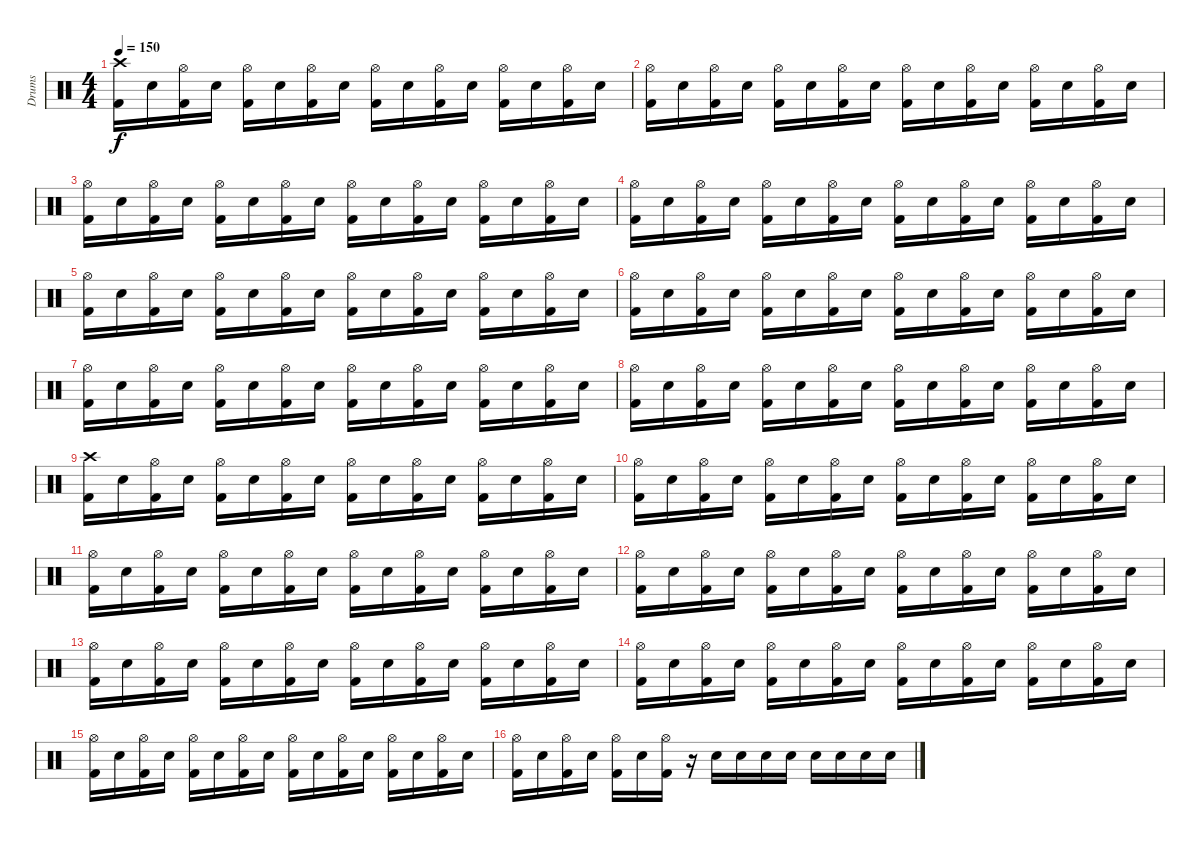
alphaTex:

\track ("Drums" "Drums") {instrument percussion}
\staff {score}
\articulation defaults
\ts (4 4)
\tempo 150
\clef neutral
\ks c
("Kick (hit) 2" "Crash high (hit)").16{dy f} "Electric Snare (hit)".16 ("Kick (hit) 2" "Hi-Hat (open)").16 "Electric Snare (hit)".16 ("Kick (hit) 2" "Hi-Hat (open)").16 "Electric Snare (hit)".16 ("Kick (hit) 2" "Hi-Hat (open)").16 "Electric Snare (hit)".16 ("Kick (hit) 2" "Hi-Hat (open)").16 "Electric Snare (hit)".16 ("Kick (hit) 2" "Hi-Hat (open)").16 "Electric Snare (hit)".16 ("Kick (hit) 2" "Hi-Hat (open)").16 "Electric Snare (hit)".16 ("Kick (hit) 2" "Hi-Hat (open)").16 "Electric Snare (hit)".16 |
("Kick (hit) 2" "Hi-Hat (open)").16 "Electric Snare (hit)".16 ("Kick (hit) 2" "Hi-Hat (open)").16 "Electric Snare (hit)".16 ("Kick (hit) 2" "Hi-Hat (open)").16 "Electric Snare (hit)".16 ("Kick (hit) 2" "Hi-Hat (open)").16 "Electric Snare (hit)".16 ("Kick (hit) 2" "Hi-Hat (open)").16 "Electric Snare (hit)".16 ("Kick (hit) 2" "Hi-Hat (open)").16 "Electric Snare (hit)".16 ("Kick (hit) 2" "Hi-Hat (open)").16 "Electric Snare (hit)".16 ("Kick (hit) 2" "Hi-Hat (open)").16 "Electric Snare (hit)".16 |
("Kick (hit) 2" "Hi-Hat (open)").16 "Electric Snare (hit)".16 ("Kick (hit) 2" "Hi-Hat (open)").16 "Electric Snare (hit)".16 ("Kick (hit) 2" "Hi-Hat (open)").16 "Electric Snare (hit)".16 ("Kick (hit) 2" "Hi-Hat (open)").16 "Electric Snare (hit)".16 ("Kick (hit) 2" "Hi-Hat (open)").16 "Electric Snare (hit)".16 ("Kick (hit) 2" "Hi-Hat (open)").16 "Electric Snare (hit)".16 ("Kick (hit) 2" "Hi-Hat (open)").16 "Electric Snare (hit)".16 ("Kick (hit) 2" "Hi-Hat (open)").16 "Electric Snare (hit)".16 |
("Kick (hit) 2" "Hi-Hat (open)").16 "Electric Snare (hit)".16 ("Kick (hit) 2" "Hi-Hat (open)").16 "Electric Snare (hit)".16 ("Kick (hit) 2" "Hi-Hat (open)").16 "Electric Snare (hit)".16 ("Kick (hit) 2" "Hi-Hat (open)").16 "Electric Snare (hit)".16 ("Kick (hit) 2" "Hi-Hat (open)").16 "Electric Snare (hit)".16 ("Kick (hit) 2" "Hi-Hat (open)").16 "Electric Snare (hit)".16 ("Kick (hit) 2" "Hi-Hat (open)").16 "Electric Snare (hit)".16 ("Kick (hit) 2" "Hi-Hat (open)").16 "Electric Snare (hit)".16 |
("Kick (hit) 2" "Hi-Hat (open)").16 "Electric Snare (hit)".16 ("Kick (hit) 2" "Hi-Hat (open)").16 "Electric Snare (hit)".16 ("Kick (hit) 2" "Hi-Hat (open)").16 "Electric Snare (hit)".16 ("Kick (hit) 2" "Hi-Hat (open)").16 "Electric Snare (hit)".16 ("Kick (hit) 2" "Hi-Hat (open)").16 "Electric Snare (hit)".16 ("Kick (hit) 2" "Hi-Hat (open)").16 "Electric Snare (hit)".16 ("Kick (hit) 2" "Hi-Hat (open)").16 "Electric Snare (hit)".16 ("Kick (hit) 2" "Hi-Hat (open)").16 "Electric Snare (hit)".16 |
("Kick (hit) 2" "Hi-Hat (open)").16 "Electric Snare (hit)".16 ("Kick (hit) 2" "Hi-Hat (open)").16 "Electric Snare (hit)".16 ("Kick (hit) 2" "Hi-Hat (open)").16 "Electric Snare (hit)".16 ("Kick (hit) 2" "Hi-Hat (open)").16 "Electric Snare (hit)".16 ("Kick (hit) 2" "Hi-Hat (open)").16 "Electric Snare (hit)".16 ("Kick (hit) 2" "Hi-Hat (open)").16 "Electric Snare (hit)".16 ("Kick (hit) 2" "Hi-Hat (open)").16 "Electric Snare (hit)".16 ("Kick (hit) 2" "Hi-Hat (open)").16 "Electric Snare (hit)".16 |
("Kick (hit) 2" "Hi-Hat (open)").16 "Electric Snare (hit)".16 ("Kick (hit) 2" "Hi-Hat (open)").16 "Electric Snare (hit)".16 ("Kick (hit) 2" "Hi-Hat (open)").16 "Electric Snare (hit)".16 ("Kick (hit) 2" "Hi-Hat (open)").16 "Electric Snare (hit)".16 ("Kick (hit) 2" "Hi-Hat (open)").16 "Electric Snare (hit)".16 ("Kick (hit) 2" "Hi-Hat (open)").16 "Electric Snare (hit)".16 ("Kick (hit) 2" "Hi-Hat (open)").16 "Electric Snare (hit)".16 ("Kick (hit) 2" "Hi-Hat (open)").16 "Electric Snare (hit)".16 |
("Kick (hit) 2" "Hi-Hat (open)").16 "Electric Snare (hit)".16 ("Kick (hit) 2" "Hi-Hat (open)").16 "Electric Snare (hit)".16 ("Kick (hit) 2" "Hi-Hat (open)").16 "Electric Snare (hit)".16 ("Kick (hit) 2" "Hi-Hat (open)").16 "Electric Snare (hit)".16 ("Kick (hit) 2" "Hi-Hat (open)").16 "Electric Snare (hit)".16 ("Kick (hit) 2" "Hi-Hat (open)").16 "Electric Snare (hit)".16 ("Kick (hit) 2" "Hi-Hat (open)").16 "Electric Snare (hit)".16 ("Kick (hit) 2" "Hi-Hat (open)").16 "Electric Snare (hit)".16 |
("Kick (hit) 2" "Crash high (hit)").16 "Electric Snare (hit)".16 ("Kick (hit) 2" "Hi-Hat (open)").16 "Electric Snare (hit)".16 ("Kick (hit) 2" "Hi-Hat (open)").16 "Electric Snare (hit)".16 ("Kick (hit) 2" "Hi-Hat (open)").16 "Electric Snare (hit)".16 ("Kick (hit) 2" "Hi-Hat (open)").16 "Electric Snare (hit)".16 ("Kick (hit) 2" "Hi-Hat (open)").16 "Electric Snare (hit)".16 ("Kick (hit) 2" "Hi-Hat (open)").16 "Electric Snare (hit)".16 ("Kick (hit) 2" "Hi-Hat (open)").16 "Electric Snare (hit)".16 |
("Kick (hit) 2" "Hi-Hat (open)").16 "Electric Snare (hit)".16 ("Kick (hit) 2" "Hi-Hat (open)").16 "Electric Snare (hit)".16 ("Kick (hit) 2" "Hi-Hat (open)").16 "Electric Snare (hit)".16 ("Kick (hit) 2" "Hi-Hat (open)").16 "Electric Snare (hit)".16 ("Kick (hit) 2" "Hi-Hat (open)").16 "Electric Snare (hit)".16 ("Kick (hit) 2" "Hi-Hat (open)").16 "Electric Snare (hit)".16 ("Kick (hit) 2" "Hi-Hat (open)").16 "Electric Snare (hit)".16 ("Kick (hit) 2" "Hi-Hat (open)").16 "Electric Snare (hit)".16 |
("Kick (hit) 2" "Hi-Hat (open)").16 "Electric Snare (hit)".16 ("Kick (hit) 2" "Hi-Hat (open)").16 "Electric Snare (hit)".16 ("Kick (hit) 2" "Hi-Hat (open)").16 "Electric Snare (hit)".16 ("Kick (hit) 2" "Hi-Hat (open)").16 "Electric Snare (hit)".16 ("Kick (hit) 2" "Hi-Hat (open)").16 "Electric Snare (hit)".16 ("Kick (hit) 2" "Hi-Hat (open)").16 "Electric Snare (hit)".16 ("Kick (hit) 2" "Hi-Hat (open)").16 "Electric Snare (hit)".16 ("Kick (hit) 2" "Hi-Hat (open)").16 "Electric Snare (hit)".16 |
("Kick (hit) 2" "Hi-Hat (open)").16 "Electric Snare (hit)".16 ("Kick (hit) 2" "Hi-Hat (open)").16 "Electric Snare (hit)".16 ("Kick (hit) 2" "Hi-Hat (open)").16 "Electric Snare (hit)".16 ("Kick (hit) 2" "Hi-Hat (open)").16 "Electric Snare (hit)".16 ("Kick (hit) 2" "Hi-Hat (open)").16 "Electric Snare (hit)".16 ("Kick (hit) 2" "Hi-Hat (open)").16 "Electric Snare (hit)".16 ("Kick (hit) 2" "Hi-Hat (open)").16 "Electric Snare (hit)".16 ("Kick (hit) 2" "Hi-Hat (open)").16 "Electric Snare (hit)".16 |
("Kick (hit) 2" "Hi-Hat (open)").16 "Electric Snare (hit)".16 ("Kick (hit) 2" "Hi-Hat (open)").16 "Electric Snare (hit)".16 ("Kick (hit) 2" "Hi-Hat (open)").16 "Electric Snare (hit)".16 ("Kick (hit) 2" "Hi-Hat (open)").16 "Electric Snare (hit)".16 ("Kick (hit) 2" "Hi-Hat (open)").16 "Electric Snare (hit)".16 ("Kick (hit) 2" "Hi-Hat (open)").16 "Electric Snare (hit)".16 ("Kick (hit) 2" "Hi-Hat (open)").16 "Electric Snare (hit)".16 ("Kick (hit) 2" "Hi-Hat (open)").16 "Electric Snare (hit)".16 |
("Kick (hit) 2" "Hi-Hat (open)").16 "Electric Snare (hit)".16 ("Kick (hit) 2" "Hi-Hat (open)").16 "Electric Snare (hit)".16 ("Kick (hit) 2" "Hi-Hat (open)").16 "Electric Snare (hit)".16 ("Kick (hit) 2" "Hi-Hat (open)").16 "Electric Snare (hit)".16 ("Kick (hit) 2" "Hi-Hat (open)").16 "Electric Snare (hit)".16 ("Kick (hit) 2" "Hi-Hat (open)").16 "Electric Snare (hit)".16 ("Kick (hit) 2" "Hi-Hat (open)").16 "Electric Snare (hit)".16 ("Kick (hit) 2" "Hi-Hat (open)").16 "Electric Snare (hit)".16 |
("Kick (hit) 2" "Hi-Hat (open)").16 "Electric Snare (hit)".16 ("Kick (hit) 2" "Hi-Hat (open)").16 "Electric Snare (hit)".16 ("Kick (hit) 2" "Hi-Hat (open)").16 "Electric Snare (hit)".16 ("Kick (hit) 2" "Hi-Hat (open)").16 "Electric Snare (hit)".16 ("Kick (hit) 2" "Hi-Hat (open)").16 "Electric Snare (hit)".16 ("Kick (hit) 2" "Hi-Hat (open)").16 "Electric Snare (hit)".16 ("Kick (hit) 2" "Hi-Hat (open)").16 "Electric Snare (hit)".16 ("Kick (hit) 2" "Hi-Hat (open)").16 "Electric Snare (hit)".16 |
("Kick (hit) 2" "Hi-Hat (open)").16 "Electric Snare (hit)".16 ("Kick (hit) 2" "Hi-Hat (open)").16 "Electric Snare (hit)".16 ("Kick (hit) 2" "Hi-Hat (open)").16 "Electric Snare (hit)".16 ("Kick (hit) 2" "Hi-Hat (open)").16 r.16 "Electric Snare (hit)".16 "Electric Snare (hit)".16 "Electric Snare (hit)".16 "Electric Snare (hit)".16 "Electric Snare (hit)".16 "Electric Snare (hit)".16 "Electric Snare (hit)".16 "Electric Snare (hit)".16
